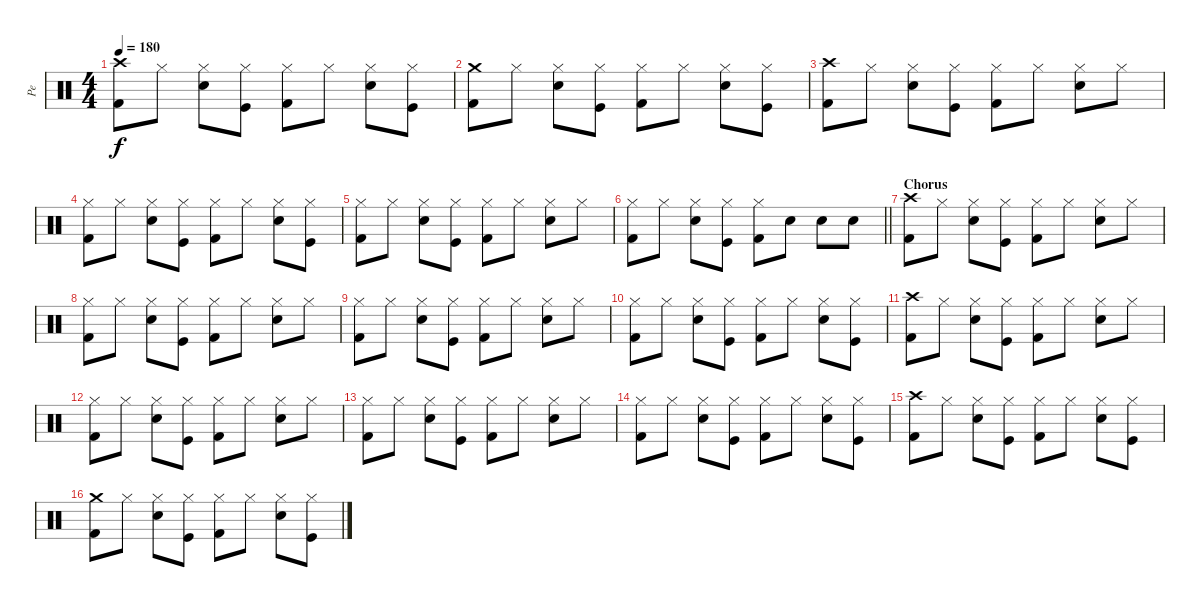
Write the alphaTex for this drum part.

\track ("Pe" "Pe") {instrument percussion}
\staff {score}
\articulation defaults
\ts (4 4)
\tempo 180
\clef neutral
\ks c
("Kick (hit) 2" "Crash high (hit)").8{dy f} "Hi-Hat (closed)".8 ("Electric Snare (hit)" "Hi-Hat (closed)").8 ("Kick (hit)" "Hi-Hat (closed)").8 ("Kick (hit) 2" "Hi-Hat (closed)").8 "Hi-Hat (closed)".8 ("Electric Snare (hit)" "Hi-Hat (closed)").8 ("Kick (hit)" "Hi-Hat (closed)").8 |
("Kick (hit) 2" "Crash medium (hit)").8 "Hi-Hat (closed)".8 ("Electric Snare (hit)" "Hi-Hat (closed)").8 ("Kick (hit)" "Hi-Hat (closed)").8 ("Kick (hit) 2" "Hi-Hat (closed)").8 "Hi-Hat (closed)".8 ("Electric Snare (hit)" "Hi-Hat (closed)").8 ("Kick (hit)" "Hi-Hat (closed)").8 |
("Kick (hit) 2" "Crash high (hit)").8 "Hi-Hat (closed)".8 ("Electric Snare (hit)" "Hi-Hat (closed)").8 ("Kick (hit)" "Hi-Hat (closed)").8 ("Kick (hit) 2" "Hi-Hat (closed)").8 "Hi-Hat (closed)".8 ("Electric Snare (hit)" "Hi-Hat (closed)").8 "Hi-Hat (closed)".8 |
("Kick (hit) 2" "Hi-Hat (closed)").8 "Hi-Hat (closed)".8 ("Electric Snare (hit)" "Hi-Hat (closed)").8 ("Kick (hit)" "Hi-Hat (closed)").8 ("Kick (hit) 2" "Hi-Hat (closed)").8 "Hi-Hat (closed)".8 ("Electric Snare (hit)" "Hi-Hat (closed)").8 ("Kick (hit)" "Hi-Hat (closed)").8 |
("Kick (hit) 2" "Hi-Hat (closed)").8 "Hi-Hat (closed)".8 ("Electric Snare (hit)" "Hi-Hat (closed)").8 ("Kick (hit)" "Hi-Hat (closed)").8 ("Kick (hit) 2" "Hi-Hat (closed)").8 "Hi-Hat (closed)".8 ("Electric Snare (hit)" "Hi-Hat (closed)").8 "Hi-Hat (closed)".8 |
\barLineRight lightlight
("Kick (hit) 2" "Hi-Hat (closed)").8 "Hi-Hat (closed)".8 ("Electric Snare (hit)" "Hi-Hat (closed)").8 ("Kick (hit)" "Hi-Hat (closed)").8 ("Kick (hit) 2" "Hi-Hat (closed)").8 "Electric Snare (hit)".8 "Electric Snare (hit)".8 "Electric Snare (hit)".8 |
\section ("" "Chorus")
("Kick (hit) 2" "Crash high (hit)").8 "Hi-Hat (closed)".8 ("Electric Snare (hit)" "Hi-Hat (closed)").8 ("Kick (hit)" "Hi-Hat (closed)").8 ("Kick (hit) 2" "Hi-Hat (closed)").8 "Hi-Hat (closed)".8 ("Electric Snare (hit)" "Hi-Hat (closed)").8 "Hi-Hat (closed)".8 |
("Kick (hit) 2" "Hi-Hat (closed)").8 "Hi-Hat (closed)".8 ("Electric Snare (hit)" "Hi-Hat (closed)").8 ("Kick (hit)" "Hi-Hat (closed)").8 ("Kick (hit) 2" "Hi-Hat (closed)").8 "Hi-Hat (closed)".8 ("Electric Snare (hit)" "Hi-Hat (closed)").8 "Hi-Hat (closed)".8 |
("Kick (hit) 2" "Hi-Hat (closed)").8 "Hi-Hat (closed)".8 ("Electric Snare (hit)" "Hi-Hat (closed)").8 ("Kick (hit)" "Hi-Hat (closed)").8 ("Kick (hit) 2" "Hi-Hat (closed)").8 "Hi-Hat (closed)".8 ("Electric Snare (hit)" "Hi-Hat (closed)").8 "Hi-Hat (closed)".8 |
("Kick (hit) 2" "Hi-Hat (closed)").8 "Hi-Hat (closed)".8 ("Electric Snare (hit)" "Hi-Hat (closed)").8 ("Kick (hit)" "Hi-Hat (closed)").8 ("Kick (hit) 2" "Hi-Hat (closed)").8 "Hi-Hat (closed)".8 ("Electric Snare (hit)" "Hi-Hat (closed)").8 ("Kick (hit)" "Hi-Hat (closed)").8 |
("Kick (hit) 2" "Crash high (hit)").8 "Hi-Hat (closed)".8 ("Electric Snare (hit)" "Hi-Hat (closed)").8 ("Kick (hit)" "Hi-Hat (closed)").8 ("Kick (hit) 2" "Hi-Hat (closed)").8 "Hi-Hat (closed)".8 ("Electric Snare (hit)" "Hi-Hat (closed)").8 "Hi-Hat (closed)".8 |
("Kick (hit) 2" "Hi-Hat (closed)").8 "Hi-Hat (closed)".8 ("Electric Snare (hit)" "Hi-Hat (closed)").8 ("Kick (hit)" "Hi-Hat (closed)").8 ("Kick (hit) 2" "Hi-Hat (closed)").8 "Hi-Hat (closed)".8 ("Electric Snare (hit)" "Hi-Hat (closed)").8 "Hi-Hat (closed)".8 |
("Kick (hit) 2" "Hi-Hat (closed)").8 "Hi-Hat (closed)".8 ("Electric Snare (hit)" "Hi-Hat (closed)").8 ("Kick (hit)" "Hi-Hat (closed)").8 ("Kick (hit) 2" "Hi-Hat (closed)").8 "Hi-Hat (closed)".8 ("Electric Snare (hit)" "Hi-Hat (closed)").8 "Hi-Hat (closed)".8 |
("Kick (hit) 2" "Hi-Hat (closed)").8 "Hi-Hat (closed)".8 ("Electric Snare (hit)" "Hi-Hat (closed)").8 ("Kick (hit)" "Hi-Hat (closed)").8 ("Kick (hit) 2" "Hi-Hat (closed)").8 "Hi-Hat (closed)".8 ("Electric Snare (hit)" "Hi-Hat (closed)").8 ("Kick (hit)" "Hi-Hat (closed)").8 |
("Kick (hit) 2" "Crash high (hit)").8 "Hi-Hat (closed)".8 ("Electric Snare (hit)" "Hi-Hat (closed)").8 ("Kick (hit)" "Hi-Hat (closed)").8 ("Kick (hit) 2" "Hi-Hat (closed)").8 "Hi-Hat (closed)".8 ("Electric Snare (hit)" "Hi-Hat (closed)").8 ("Kick (hit)" "Hi-Hat (closed)").8 |
("Kick (hit) 2" "Crash medium (hit)").8 "Hi-Hat (closed)".8 ("Electric Snare (hit)" "Hi-Hat (closed)").8 ("Kick (hit)" "Hi-Hat (closed)").8 ("Kick (hit) 2" "Hi-Hat (closed)").8 "Hi-Hat (closed)".8 ("Electric Snare (hit)" "Hi-Hat (closed)").8 ("Kick (hit)" "Hi-Hat (closed)").8
